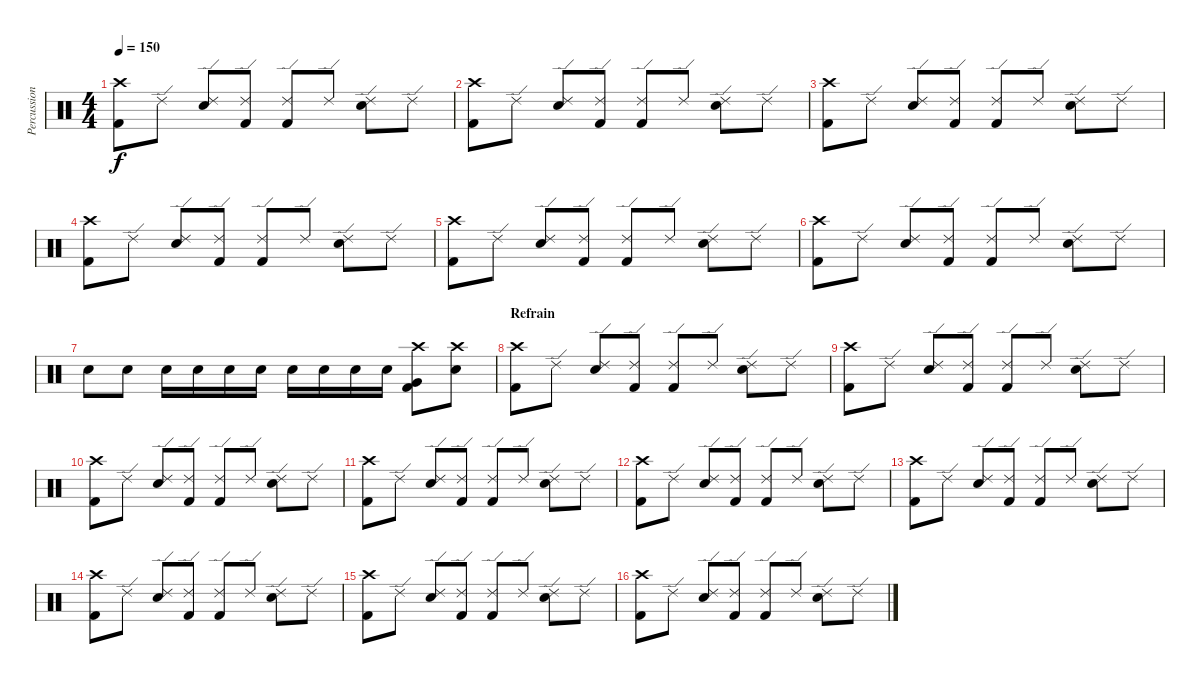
\track ("Percussion" "Percussion") {instrument percussion}
\staff {score}
\articulation defaults
\ts (4 4)
\tempo 150
\clef neutral
\ks c
("Crash high (hit)" "Kick (hit) 2").8{dy f} "Ride (edge) 2".8 ("Ride (edge) 2" "Electric Snare (hit)").8 ("Ride (edge) 2" "Kick (hit) 2").8 ("Ride (edge) 2" "Kick (hit) 2").8 "Ride (edge) 2".8 ("Ride (edge) 2" "Electric Snare (hit)").8 "Ride (edge) 2".8 |
("Crash high (hit)" "Kick (hit) 2").8 "Ride (edge) 2".8 ("Ride (edge) 2" "Electric Snare (hit)").8 ("Ride (edge) 2" "Kick (hit) 2").8 ("Ride (edge) 2" "Kick (hit) 2").8 "Ride (edge) 2".8 ("Ride (edge) 2" "Electric Snare (hit)").8 "Ride (edge) 2".8 |
("Crash high (hit)" "Kick (hit) 2").8 "Ride (edge) 2".8 ("Ride (edge) 2" "Electric Snare (hit)").8 ("Ride (edge) 2" "Kick (hit) 2").8 ("Ride (edge) 2" "Kick (hit) 2").8 "Ride (edge) 2".8 ("Ride (edge) 2" "Electric Snare (hit)").8 "Ride (edge) 2".8 |
("Crash high (hit)" "Kick (hit) 2").8 "Ride (edge) 2".8 ("Ride (edge) 2" "Electric Snare (hit)").8 ("Ride (edge) 2" "Kick (hit) 2").8 ("Ride (edge) 2" "Kick (hit) 2").8 "Ride (edge) 2".8 ("Ride (edge) 2" "Electric Snare (hit)").8 "Ride (edge) 2".8 |
("Crash high (hit)" "Kick (hit) 2").8 "Ride (edge) 2".8 ("Ride (edge) 2" "Electric Snare (hit)").8 ("Ride (edge) 2" "Kick (hit) 2").8 ("Ride (edge) 2" "Kick (hit) 2").8 "Ride (edge) 2".8 ("Ride (edge) 2" "Electric Snare (hit)").8 "Ride (edge) 2".8 |
("Crash high (hit)" "Kick (hit) 2").8 "Ride (edge) 2".8 ("Ride (edge) 2" "Electric Snare (hit)").8 ("Ride (edge) 2" "Kick (hit) 2").8 ("Ride (edge) 2" "Kick (hit) 2").8 "Ride (edge) 2".8 ("Ride (edge) 2" "Electric Snare (hit)").8 "Ride (edge) 2".8 |
"Electric Snare (hit)".8 "Electric Snare (hit)".8 "Electric Snare (hit)".16 "Electric Snare (hit)".16 "Electric Snare (hit)".16 "Electric Snare (hit)".16 "Electric Snare (hit)".16 "Electric Snare (hit)".16 "Electric Snare (hit)".16 "Electric Snare (hit)".16 ("Crash high (hit)" "Very Low Tom (hit)" "Kick (hit) 2").8 ("Crash high (hit)" "Electric Snare (hit)").8 |
\section ("" "Refrain")
("Crash high (hit)" "Kick (hit) 2").8 "Ride (edge) 2".8 ("Ride (edge) 2" "Electric Snare (hit)").8 ("Ride (edge) 2" "Kick (hit) 2").8 ("Ride (edge) 2" "Kick (hit) 2").8 "Ride (edge) 2".8 ("Ride (edge) 2" "Electric Snare (hit)").8 "Ride (edge) 2".8 |
("Crash high (hit)" "Kick (hit) 2").8 "Ride (edge) 2".8 ("Ride (edge) 2" "Electric Snare (hit)").8 ("Ride (edge) 2" "Kick (hit) 2").8 ("Ride (edge) 2" "Kick (hit) 2").8 "Ride (edge) 2".8 ("Ride (edge) 2" "Electric Snare (hit)").8 "Ride (edge) 2".8 |
("Crash high (hit)" "Kick (hit) 2").8 "Ride (edge) 2".8 ("Ride (edge) 2" "Electric Snare (hit)").8 ("Ride (edge) 2" "Kick (hit) 2").8 ("Ride (edge) 2" "Kick (hit) 2").8 "Ride (edge) 2".8 ("Ride (edge) 2" "Electric Snare (hit)").8 "Ride (edge) 2".8 |
("Crash high (hit)" "Kick (hit) 2").8 "Ride (edge) 2".8 ("Ride (edge) 2" "Electric Snare (hit)").8 ("Ride (edge) 2" "Kick (hit) 2").8 ("Ride (edge) 2" "Kick (hit) 2").8 "Ride (edge) 2".8 ("Ride (edge) 2" "Electric Snare (hit)").8 "Ride (edge) 2".8 |
("Crash high (hit)" "Kick (hit) 2").8 "Ride (edge) 2".8 ("Ride (edge) 2" "Electric Snare (hit)").8 ("Ride (edge) 2" "Kick (hit) 2").8 ("Ride (edge) 2" "Kick (hit) 2").8 "Ride (edge) 2".8 ("Ride (edge) 2" "Electric Snare (hit)").8 "Ride (edge) 2".8 |
("Crash high (hit)" "Kick (hit) 2").8 "Ride (edge) 2".8 ("Ride (edge) 2" "Electric Snare (hit)").8 ("Ride (edge) 2" "Kick (hit) 2").8 ("Ride (edge) 2" "Kick (hit) 2").8 "Ride (edge) 2".8 ("Ride (edge) 2" "Electric Snare (hit)").8 "Ride (edge) 2".8 |
("Crash high (hit)" "Kick (hit) 2").8 "Ride (edge) 2".8 ("Ride (edge) 2" "Electric Snare (hit)").8 ("Ride (edge) 2" "Kick (hit) 2").8 ("Ride (edge) 2" "Kick (hit) 2").8 "Ride (edge) 2".8 ("Ride (edge) 2" "Electric Snare (hit)").8 "Ride (edge) 2".8 |
("Crash high (hit)" "Kick (hit) 2").8 "Ride (edge) 2".8 ("Ride (edge) 2" "Electric Snare (hit)").8 ("Ride (edge) 2" "Kick (hit) 2").8 ("Ride (edge) 2" "Kick (hit) 2").8 "Ride (edge) 2".8 ("Ride (edge) 2" "Electric Snare (hit)").8 "Ride (edge) 2".8 |
("Crash high (hit)" "Kick (hit) 2").8 "Ride (edge) 2".8 ("Ride (edge) 2" "Electric Snare (hit)").8 ("Ride (edge) 2" "Kick (hit) 2").8 ("Ride (edge) 2" "Kick (hit) 2").8 "Ride (edge) 2".8 ("Ride (edge) 2" "Electric Snare (hit)").8 "Ride (edge) 2".8
